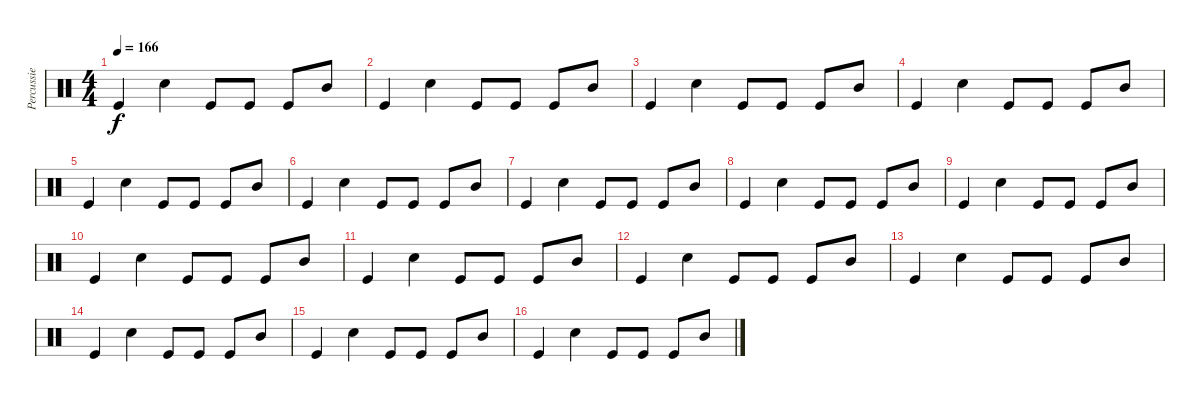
\track ("Percussie" "Percussie") {instrument percussion}
\staff {score}
\articulation defaults
\ts (4 4)
\tempo 166
\clef neutral
\ks c "Kick (hit)".4{dy f} "Electric Snare (hit)".4 "Kick (hit)".8 "Kick (hit)".8 "Kick (hit)".8 "Mid Tom (hit)".8
|
"Kick (hit)".4 "Electric Snare (hit)".4 "Kick (hit)".8 "Kick (hit)".8 "Kick (hit)".8 "Mid Tom (hit)".8 |
"Kick (hit)".4 "Electric Snare (hit)".4 "Kick (hit)".8 "Kick (hit)".8 "Kick (hit)".8 "Mid Tom (hit)".8 |
"Kick (hit)".4 "Electric Snare (hit)".4 "Kick (hit)".8 "Kick (hit)".8 "Kick (hit)".8 "Mid Tom (hit)".8 |
"Kick (hit)".4 "Electric Snare (hit)".4 "Kick (hit)".8 "Kick (hit)".8 "Kick (hit)".8 "Mid Tom (hit)".8 |
"Kick (hit)".4 "Electric Snare (hit)".4 "Kick (hit)".8 "Kick (hit)".8 "Kick (hit)".8 "Mid Tom (hit)".8 |
"Kick (hit)".4 "Electric Snare (hit)".4 "Kick (hit)".8 "Kick (hit)".8 "Kick (hit)".8 "Mid Tom (hit)".8 |
"Kick (hit)".4 "Electric Snare (hit)".4 "Kick (hit)".8 "Kick (hit)".8 "Kick (hit)".8 "Mid Tom (hit)".8 |
"Kick (hit)".4 "Electric Snare (hit)".4 "Kick (hit)".8 "Kick (hit)".8 "Kick (hit)".8 "Mid Tom (hit)".8 |
"Kick (hit)".4 "Electric Snare (hit)".4 "Kick (hit)".8 "Kick (hit)".8 "Kick (hit)".8 "Mid Tom (hit)".8 |
"Kick (hit)".4 "Electric Snare (hit)".4 "Kick (hit)".8 "Kick (hit)".8 "Kick (hit)".8 "Mid Tom (hit)".8 |
"Kick (hit)".4 "Electric Snare (hit)".4 "Kick (hit)".8 "Kick (hit)".8 "Kick (hit)".8 "Mid Tom (hit)".8 |
"Kick (hit)".4 "Electric Snare (hit)".4 "Kick (hit)".8 "Kick (hit)".8 "Kick (hit)".8 "Mid Tom (hit)".8 |
"Kick (hit)".4 "Electric Snare (hit)".4 "Kick (hit)".8 "Kick (hit)".8 "Kick (hit)".8 "Mid Tom (hit)".8 |
"Kick (hit)".4 "Electric Snare (hit)".4 "Kick (hit)".8 "Kick (hit)".8 "Kick (hit)".8 "Mid Tom (hit)".8 |
"Kick (hit)".4 "Electric Snare (hit)".4 "Kick (hit)".8 "Kick (hit)".8 "Kick (hit)".8 "Mid Tom (hit)".8
